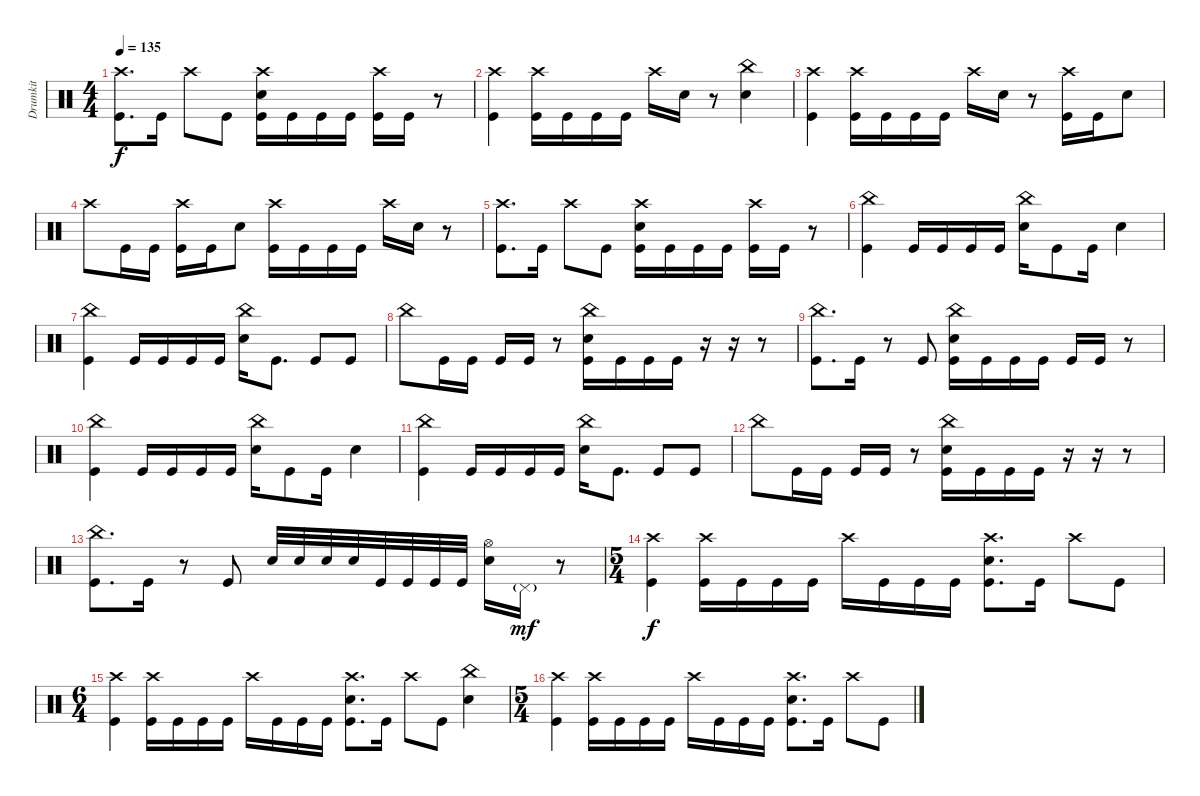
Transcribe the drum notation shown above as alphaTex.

\track ("Drumkit" "Drumkit") {instrument percussion}
\staff {score}
\articulation defaults
\ts (4 4)
\tempo 135
\clef neutral
\ks c
("Crash high (hit)" "Kick (hit)").8{d dy f} "Kick (hit)".16 "Crash high (hit)".8 "Kick (hit)".8 ("Crash high (hit)" "Snare (hit) 2" "Kick (hit)").16 "Kick (hit)".16 "Kick (hit)".16 "Kick (hit)".16 ("Crash high (hit)" "Kick (hit)").16 "Kick (hit)".16 r.8 |
("Crash high (hit)" "Kick (hit)").4 ("Kick (hit)" "Crash high (hit)").16 "Kick (hit)".16 "Kick (hit)".16 "Kick (hit)".16 "Crash high (hit)".16 "Snare (hit) 2".16 r.8 ("China (hit)" "Snare (hit) 2").4 |
("Crash high (hit)" "Kick (hit)").4 ("Crash high (hit)" "Kick (hit)").16 "Kick (hit)".16 "Kick (hit)".16 "Kick (hit)".16 "Crash high (hit)".16 "Snare (hit) 2".16 r.8 ("Crash high (hit)" "Kick (hit)").16 "Kick (hit)".16 "Snare (hit) 2".8 |
"Crash high (hit)".8 "Kick (hit)".16 "Kick (hit)".16 ("Crash high (hit)" "Kick (hit)").16 "Kick (hit)".16 "Snare (hit) 2".8 ("Kick (hit)" "Crash high (hit)").16 "Kick (hit)".16 "Kick (hit)".16 "Kick (hit)".16 "Crash high (hit)".16 "Snare (hit) 2".16 r.8 |
("Crash high (hit)" "Kick (hit)").8{d} "Kick (hit)".16 "Crash high (hit)".8 "Kick (hit)".8 ("Crash high (hit)" "Snare (hit) 2" "Kick (hit)").16 "Kick (hit)".16 "Kick (hit)".16 "Kick (hit)".16 ("Crash high (hit)" "Kick (hit)").16 "Kick (hit)".16 r.8 |
("Kick (hit)" "China (hit)").4 "Kick (hit)".16 "Kick (hit)".16 "Kick (hit)".16 "Kick (hit)".16 ("China (hit)" "Snare (hit) 2").16 "Kick (hit)".8 "Kick (hit)".16 "Snare (hit) 2".4 |
("Kick (hit)" "China (hit)").4 "Kick (hit)".16 "Kick (hit)".16 "Kick (hit)".16 "Kick (hit)".16 ("China (hit)" "Snare (hit) 2").16 "Kick (hit)".8{d} "Kick (hit)".8 "Kick (hit)".8 |
"China (hit)".8 "Kick (hit)".16 "Kick (hit)".16 "Kick (hit)".16 "Kick (hit)".16 r.8 ("Kick (hit)" "China (hit)" "Snare (hit) 2").16 "Kick (hit)".16 "Kick (hit)".16 "Kick (hit)".16 r.16 r.16 r.8 |
("China (hit)" "Kick (hit)").8{d} "Kick (hit)".16 r.8 "Kick (hit)".8 ("China (hit)" "Snare (hit) 2" "Kick (hit)").16 "Kick (hit)".16 "Kick (hit)".16 "Kick (hit)".16 "Kick (hit)".16 "Kick (hit)".16 r.8 |
("Kick (hit)" "China (hit)").4 "Kick (hit)".16 "Kick (hit)".16 "Kick (hit)".16 "Kick (hit)".16 ("China (hit)" "Snare (hit) 2").16 "Kick (hit)".8 "Kick (hit)".16 "Snare (hit) 2".4 |
("Kick (hit)" "China (hit)").4 "Kick (hit)".16 "Kick (hit)".16 "Kick (hit)".16 "Kick (hit)".16 ("China (hit)" "Snare (hit) 2").16 "Kick (hit)".8{d} "Kick (hit)".8 "Kick (hit)".8 |
"China (hit)".8 "Kick (hit)".16 "Kick (hit)".16 "Kick (hit)".16 "Kick (hit)".16 r.8 ("Kick (hit)" "China (hit)" "Snare (hit) 2").16 "Kick (hit)".16 "Kick (hit)".16 "Kick (hit)".16 r.16 r.16 r.8 |
("China (hit)" "Kick (hit)").8{d} "Kick (hit)".16 r.8 "Kick (hit)".8 "Snare (hit) 2".32 "Snare (hit) 2".32 "Snare (hit) 2".32 "Snare (hit) 2".32 "Kick (hit)".32 "Kick (hit)".32 "Kick (hit)".32 "Kick (hit)".32 ("Hi-Hat (open)" "Snare (hit) 2").16 "Pedal Hi-Hat (hit)"{g}.16{dy mf} r.8 |
\ts (5 4)
("Crash high (hit)" "Kick (hit)").4{dy f} ("Crash high (hit)" "Kick (hit)").16 "Kick (hit)".16 "Kick (hit)".16 "Kick (hit)".16 "Crash high (hit)".16 "Kick (hit)".16 "Kick (hit)".16 "Kick (hit)".16 ("Crash high (hit)" "Kick (hit)" "Snare (hit) 2").8{d} "Kick (hit)".16 "Crash high (hit)".8 "Kick (hit)".8 |
\ts (6 4)
("Crash high (hit)" "Kick (hit)").4 ("Crash high (hit)" "Kick (hit)").16 "Kick (hit)".16 "Kick (hit)".16 "Kick (hit)".16 "Crash high (hit)".16 "Kick (hit)".16 "Kick (hit)".16 "Kick (hit)".16 ("Crash high (hit)" "Kick (hit)" "Snare (hit) 2").8{d} "Kick (hit)".16 "Crash high (hit)".8 "Kick (hit)".8 ("China (hit)" "Snare (hit) 2").4 |
\ts (5 4)
("Crash high (hit)" "Kick (hit)").4 ("Crash high (hit)" "Kick (hit)").16 "Kick (hit)".16 "Kick (hit)".16 "Kick (hit)".16 "Crash high (hit)".16 "Kick (hit)".16 "Kick (hit)".16 "Kick (hit)".16 ("Crash high (hit)" "Kick (hit)" "Snare (hit) 2").8{d} "Kick (hit)".16 "Crash high (hit)".8 "Kick (hit)".8
